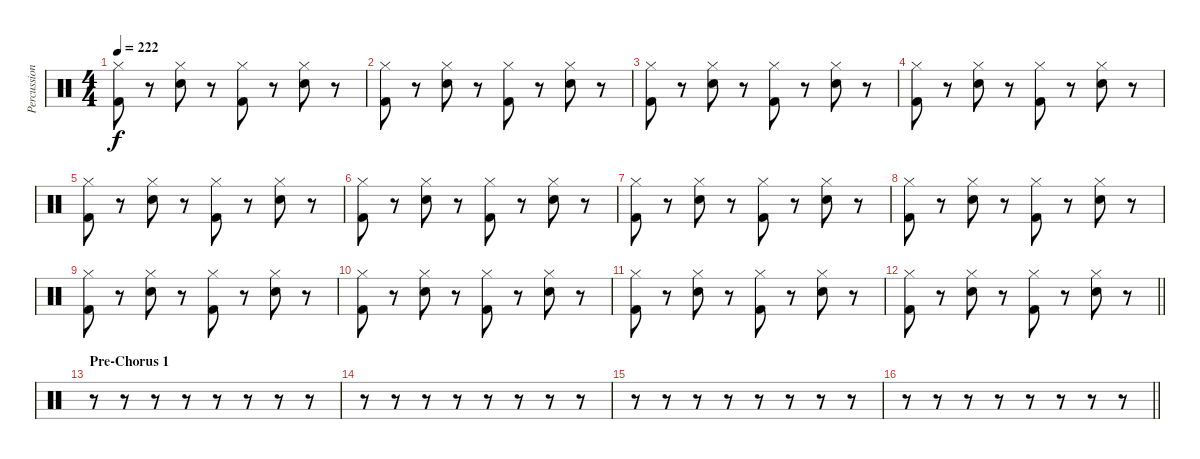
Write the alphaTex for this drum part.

\track ("Percussion" "Percussion") {instrument percussion}
\staff {score}
\articulation defaults
\ts (4 4)
\tempo 222
\clef neutral
\ks c
("Kick (hit) 2" "Hi-Hat (closed)").8{dy f} r.8 ("Snare (hit) 2" "Hi-Hat (closed)").8 r.8 ("Kick (hit) 2" "Hi-Hat (closed)").8 r.8 ("Snare (hit) 2" "Hi-Hat (closed)").8 r.8 |
("Kick (hit) 2" "Hi-Hat (closed)").8 r.8 ("Snare (hit) 2" "Hi-Hat (closed)").8 r.8 ("Kick (hit) 2" "Hi-Hat (closed)").8 r.8 ("Snare (hit) 2" "Hi-Hat (closed)").8 r.8 |
("Kick (hit) 2" "Hi-Hat (closed)").8 r.8 ("Snare (hit) 2" "Hi-Hat (closed)").8 r.8 ("Kick (hit) 2" "Hi-Hat (closed)").8 r.8 ("Snare (hit) 2" "Hi-Hat (closed)").8 r.8 |
("Kick (hit) 2" "Hi-Hat (closed)").8 r.8 ("Snare (hit) 2" "Hi-Hat (closed)").8 r.8 ("Kick (hit) 2" "Hi-Hat (closed)").8 r.8 ("Snare (hit) 2" "Hi-Hat (closed)").8 r.8 |
("Kick (hit) 2" "Hi-Hat (closed)").8 r.8 ("Snare (hit) 2" "Hi-Hat (closed)").8 r.8 ("Kick (hit) 2" "Hi-Hat (closed)").8 r.8 ("Snare (hit) 2" "Hi-Hat (closed)").8 r.8 |
("Kick (hit) 2" "Hi-Hat (closed)").8 r.8 ("Snare (hit) 2" "Hi-Hat (closed)").8 r.8 ("Kick (hit) 2" "Hi-Hat (closed)").8 r.8 ("Snare (hit) 2" "Hi-Hat (closed)").8 r.8 |
("Kick (hit) 2" "Hi-Hat (closed)").8 r.8 ("Snare (hit) 2" "Hi-Hat (closed)").8 r.8 ("Kick (hit) 2" "Hi-Hat (closed)").8 r.8 ("Snare (hit) 2" "Hi-Hat (closed)").8 r.8 |
("Kick (hit) 2" "Hi-Hat (closed)").8 r.8 ("Snare (hit) 2" "Hi-Hat (closed)").8 r.8 ("Kick (hit) 2" "Hi-Hat (closed)").8 r.8 ("Snare (hit) 2" "Hi-Hat (closed)").8 r.8 |
("Kick (hit) 2" "Hi-Hat (closed)").8 r.8 ("Snare (hit) 2" "Hi-Hat (closed)").8 r.8 ("Kick (hit) 2" "Hi-Hat (closed)").8 r.8 ("Snare (hit) 2" "Hi-Hat (closed)").8 r.8 |
("Kick (hit) 2" "Hi-Hat (closed)").8 r.8 ("Snare (hit) 2" "Hi-Hat (closed)").8 r.8 ("Kick (hit) 2" "Hi-Hat (closed)").8 r.8 ("Snare (hit) 2" "Hi-Hat (closed)").8 r.8 |
("Kick (hit) 2" "Hi-Hat (closed)").8 r.8 ("Snare (hit) 2" "Hi-Hat (closed)").8 r.8 ("Kick (hit) 2" "Hi-Hat (closed)").8 r.8 ("Snare (hit) 2" "Hi-Hat (closed)").8 r.8 |
\barLineRight lightlight
("Kick (hit) 2" "Hi-Hat (closed)").8 r.8 ("Snare (hit) 2" "Hi-Hat (closed)").8 r.8 ("Kick (hit) 2" "Hi-Hat (closed)").8 r.8 ("Snare (hit) 2" "Hi-Hat (closed)").8 r.8 |
\section ("" "Pre-Chorus 1")
r.8 r.8 r.8 r.8 r.8 r.8 r.8 r.8 |
r.8 r.8 r.8 r.8 r.8 r.8 r.8 r.8 |
r.8 r.8 r.8 r.8 r.8 r.8 r.8 r.8 |
\barLineRight lightlight
r.8 r.8 r.8 r.8 r.8 r.8 r.8 r.8
